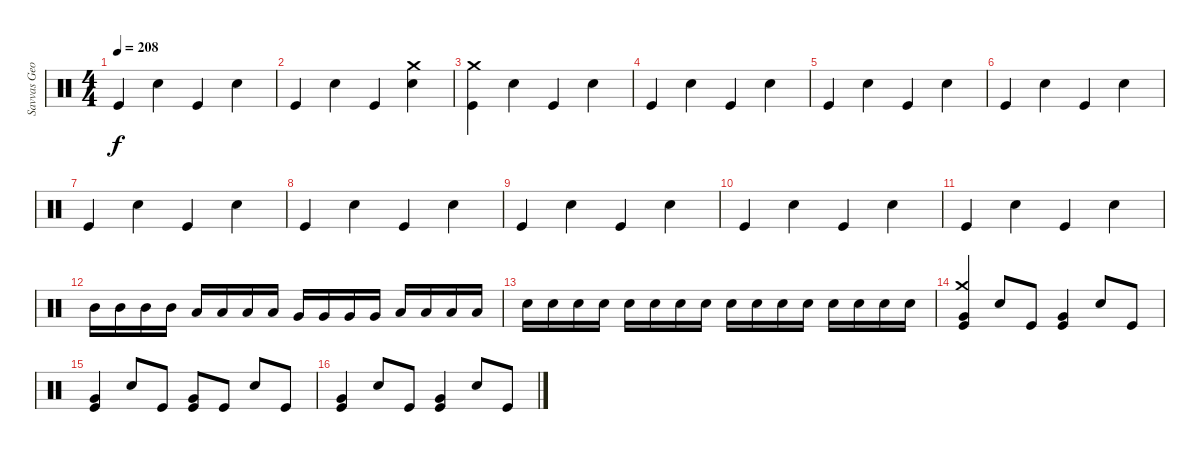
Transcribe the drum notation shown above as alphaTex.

\track ("Savvas Georgiadis" "Savvas Geo") {instrument percussion}
\staff {score}
\articulation defaults
\ts (4 4)
\tempo 208
\clef neutral
\ks c "Kick (hit)".4{dy f} "Snare (hit) 2".4 "Kick (hit)".4 "Snare (hit) 2".4
|
"Kick (hit)".4 "Snare (hit) 2".4 "Kick (hit)".4 ("Snare (hit) 2" "Crash medium (hit)").4 |
("Crash medium (hit)" "Kick (hit)").4 "Snare (hit) 2".4 "Kick (hit)".4 "Snare (hit) 2".4 |
"Kick (hit)".4 "Snare (hit) 2".4 "Kick (hit)".4 "Snare (hit) 2".4 |
"Kick (hit)".4 "Snare (hit) 2".4 "Kick (hit)".4 "Snare (hit) 2".4 |
"Kick (hit)".4 "Snare (hit) 2".4 "Kick (hit)".4 "Snare (hit) 2".4 |
"Kick (hit)".4 "Snare (hit) 2".4 "Kick (hit)".4 "Snare (hit) 2".4 |
"Kick (hit)".4 "Snare (hit) 2".4 "Kick (hit)".4 "Snare (hit) 2".4 |
"Kick (hit)".4 "Snare (hit) 2".4 "Kick (hit)".4 "Snare (hit) 2".4 |
"Kick (hit)".4 "Snare (hit) 2".4 "Kick (hit)".4 "Snare (hit) 2".4 |
"Kick (hit)".4 "Snare (hit) 2".4 "Kick (hit)".4 "Snare (hit) 2".4 |
"Mid Tom (hit)".16 "Mid Tom (hit)".16 "Mid Tom (hit)".16 "Mid Tom (hit)".16 "Low Tom (hit)".16 "Low Tom (hit)".16 "Low Tom (hit)".16 "Low Tom (hit)".16 "Very Low Tom (hit)".16 "Very Low Tom (hit)".16 "Very Low Tom (hit)".16 "Very Low Tom (hit)".16 "Low Floor Tom (hit)".16 "Low Floor Tom (hit)".16 "Low Floor Tom (hit)".16 "Low Floor Tom (hit)".16 |
"Snare (hit) 2".16 "Snare (hit) 2".16 "Snare (hit) 2".16 "Snare (hit) 2".16 "Snare (hit) 2".16 "Snare (hit) 2".16 "Snare (hit) 2".16 "Snare (hit) 2".16 "Snare (hit) 2".16 "Snare (hit) 2".16 "Snare (hit) 2".16 "Snare (hit) 2".16 "Snare (hit) 2".16 "Snare (hit) 2".16 "Snare (hit) 2".16 "Snare (hit) 2".16 |
("Crash medium (hit)" "Very Low Tom (hit)" "Kick (hit)").4 "Snare (hit) 2".8 "Kick (hit)".8 ("Very Low Tom (hit)" "Kick (hit)").4 "Snare (hit) 2".8 "Kick (hit)".8 |
("Very Low Tom (hit)" "Kick (hit)").4 "Snare (hit) 2".8 "Kick (hit)".8 ("Very Low Tom (hit)" "Kick (hit)").8 "Kick (hit)".8 "Snare (hit) 2".8 "Kick (hit)".8 |
("Very Low Tom (hit)" "Kick (hit)").4 "Snare (hit) 2".8 "Kick (hit)".8 ("Very Low Tom (hit)" "Kick (hit)").4 "Snare (hit) 2".8 "Kick (hit)".8
